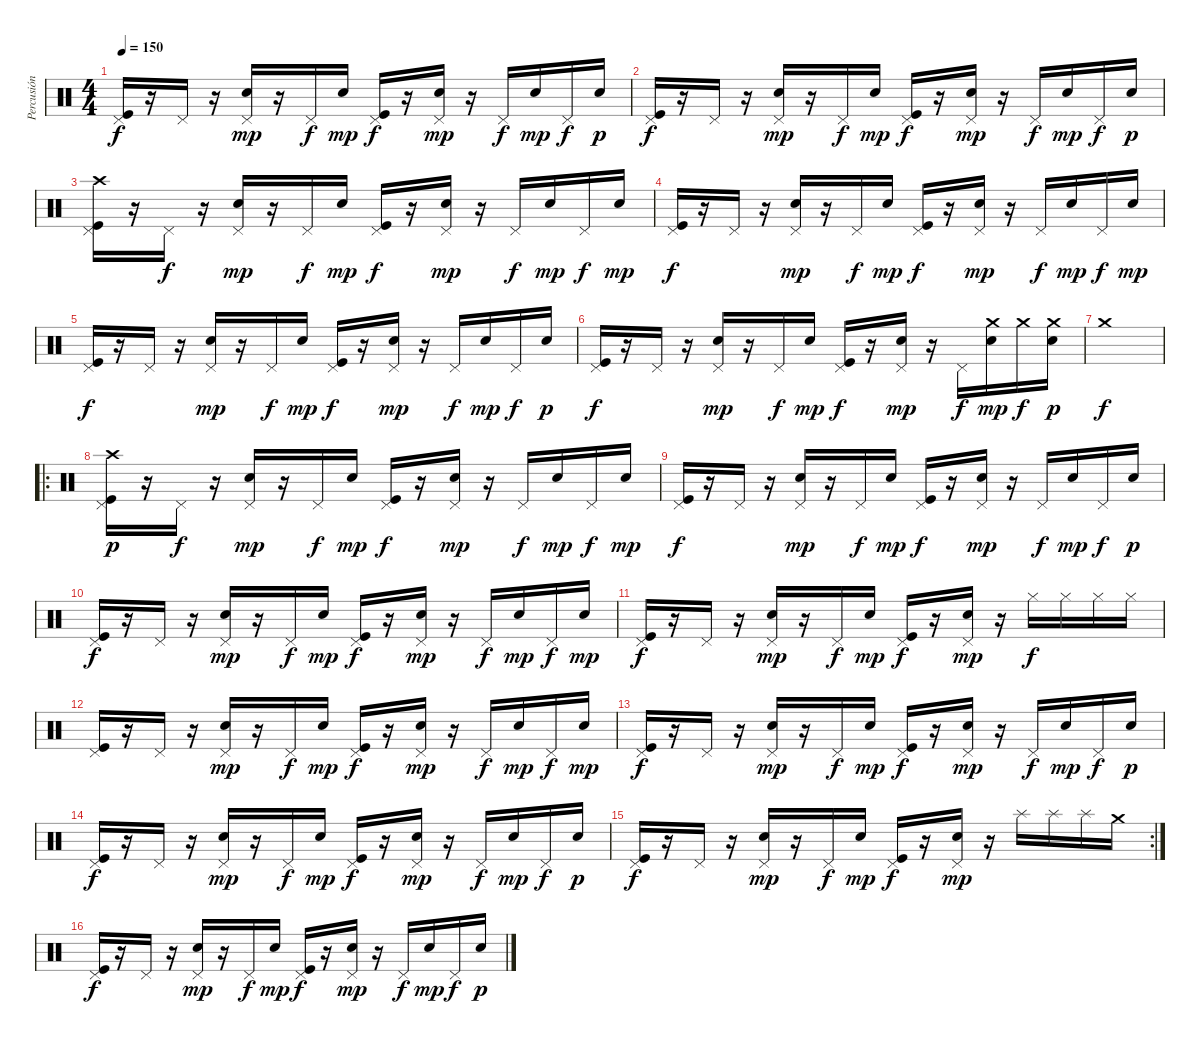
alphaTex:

\track ("Percusión" "Percusión") {instrument percussion}
\staff {score}
\articulation defaults
\ts (4 4)
\tempo 150
\clef neutral
\ks c
("Pedal Hi-Hat (hit)" "Kick (hit)").16{dy f} r.16 "Pedal Hi-Hat (hit)".16 r.16 ("Pedal Hi-Hat (hit)" "Electric Snare (hit)").16{dy mp} r.16 "Pedal Hi-Hat (hit)".16{dy f} "Electric Snare (hit)".16{dy mp} ("Pedal Hi-Hat (hit)" "Kick (hit)").16{dy f} r.16 ("Pedal Hi-Hat (hit)" "Electric Snare (hit)").16{dy mp} r.16 "Pedal Hi-Hat (hit)".16{dy f} "Electric Snare (hit)".16{dy mp} "Pedal Hi-Hat (hit)".16{dy f} "Electric Snare (hit)".16{dy p} |
("Pedal Hi-Hat (hit)" "Kick (hit)").16{dy f} r.16 "Pedal Hi-Hat (hit)".16 r.16 ("Pedal Hi-Hat (hit)" "Electric Snare (hit)").16{dy mp} r.16 "Pedal Hi-Hat (hit)".16{dy f} "Electric Snare (hit)".16{dy mp} ("Pedal Hi-Hat (hit)" "Kick (hit)").16{dy f} r.16 ("Pedal Hi-Hat (hit)" "Electric Snare (hit)").16{dy mp} r.16 "Pedal Hi-Hat (hit)".16{dy f} "Electric Snare (hit)".16{dy mp} "Pedal Hi-Hat (hit)".16{dy f} "Electric Snare (hit)".16{dy p} |
("Pedal Hi-Hat (hit)" "Crash high (hit)" "Kick (hit)").16 r.16 "Pedal Hi-Hat (hit)".16{dy f} r.16 ("Pedal Hi-Hat (hit)" "Electric Snare (hit)").16{dy mp} r.16 "Pedal Hi-Hat (hit)".16{dy f} "Electric Snare (hit)".16{dy mp} ("Pedal Hi-Hat (hit)" "Kick (hit)").16{dy f} r.16 ("Pedal Hi-Hat (hit)" "Electric Snare (hit)").16{dy mp} r.16 "Pedal Hi-Hat (hit)".16{dy f} "Electric Snare (hit)".16{dy mp} "Pedal Hi-Hat (hit)".16{dy f} "Electric Snare (hit)".16{dy mp} |
("Pedal Hi-Hat (hit)" "Kick (hit)").16{dy f} r.16 "Pedal Hi-Hat (hit)".16 r.16 ("Pedal Hi-Hat (hit)" "Electric Snare (hit)").16{dy mp} r.16 "Pedal Hi-Hat (hit)".16{dy f} "Electric Snare (hit)".16{dy mp} ("Pedal Hi-Hat (hit)" "Kick (hit)").16{dy f} r.16 ("Pedal Hi-Hat (hit)" "Electric Snare (hit)").16{dy mp} r.16 "Pedal Hi-Hat (hit)".16{dy f} "Electric Snare (hit)".16{dy mp} "Pedal Hi-Hat (hit)".16{dy f} "Electric Snare (hit)".16{dy mp} |
("Pedal Hi-Hat (hit)" "Kick (hit)").16{dy f} r.16 "Pedal Hi-Hat (hit)".16 r.16 ("Pedal Hi-Hat (hit)" "Electric Snare (hit)").16{dy mp} r.16 "Pedal Hi-Hat (hit)".16{dy f} "Electric Snare (hit)".16{dy mp} ("Pedal Hi-Hat (hit)" "Kick (hit)").16{dy f} r.16 ("Pedal Hi-Hat (hit)" "Electric Snare (hit)").16{dy mp} r.16 "Pedal Hi-Hat (hit)".16{dy f} "Electric Snare (hit)".16{dy mp} "Pedal Hi-Hat (hit)".16{dy f} "Electric Snare (hit)".16{dy p} |
("Pedal Hi-Hat (hit)" "Kick (hit)").16{dy f} r.16 "Pedal Hi-Hat (hit)".16 r.16 ("Pedal Hi-Hat (hit)" "Electric Snare (hit)").16{dy mp} r.16 "Pedal Hi-Hat (hit)".16{dy f} "Electric Snare (hit)".16{dy mp} ("Pedal Hi-Hat (hit)" "Kick (hit)").16{dy f} r.16 ("Pedal Hi-Hat (hit)" "Electric Snare (hit)").16{dy mp} r.16 "Pedal Hi-Hat (hit)".16{dy f} ("Crash medium (hit)" "Electric Snare (hit)").16{dy mp} "Crash medium (hit)".16{dy f} ("Crash medium (hit)" "Electric Snare (hit)").16{dy p} |
"Crash medium (hit)".1{dy f} |
\ro
("Pedal Hi-Hat (hit)" "Crash high (hit)" "Kick (hit)").16{dy p} r.16 "Pedal Hi-Hat (hit)".16{dy f} r.16 ("Pedal Hi-Hat (hit)" "Electric Snare (hit)").16{dy mp} r.16 "Pedal Hi-Hat (hit)".16{dy f} "Electric Snare (hit)".16{dy mp} ("Pedal Hi-Hat (hit)" "Kick (hit)").16{dy f} r.16 ("Pedal Hi-Hat (hit)" "Electric Snare (hit)").16{dy mp} r.16 "Pedal Hi-Hat (hit)".16{dy f} "Electric Snare (hit)".16{dy mp} "Pedal Hi-Hat (hit)".16{dy f} "Electric Snare (hit)".16{dy mp} |
("Pedal Hi-Hat (hit)" "Kick (hit)").16{dy f} r.16 "Pedal Hi-Hat (hit)".16 r.16 ("Pedal Hi-Hat (hit)" "Electric Snare (hit)").16{dy mp} r.16 "Pedal Hi-Hat (hit)".16{dy f} "Electric Snare (hit)".16{dy mp} ("Pedal Hi-Hat (hit)" "Kick (hit)").16{dy f} r.16 ("Pedal Hi-Hat (hit)" "Electric Snare (hit)").16{dy mp} r.16 "Pedal Hi-Hat (hit)".16{dy f} "Electric Snare (hit)".16{dy mp} "Pedal Hi-Hat (hit)".16{dy f} "Electric Snare (hit)".16{dy p} |
("Pedal Hi-Hat (hit)" "Kick (hit)").16{dy f} r.16 "Pedal Hi-Hat (hit)".16 r.16 ("Pedal Hi-Hat (hit)" "Electric Snare (hit)").16{dy mp} r.16 "Pedal Hi-Hat (hit)".16{dy f} "Electric Snare (hit)".16{dy mp} ("Pedal Hi-Hat (hit)" "Kick (hit)").16{dy f} r.16 ("Pedal Hi-Hat (hit)" "Electric Snare (hit)").16{dy mp} r.16 "Pedal Hi-Hat (hit)".16{dy f} "Electric Snare (hit)".16{dy mp} "Pedal Hi-Hat (hit)".16{dy f} "Electric Snare (hit)".16{dy mp} |
("Pedal Hi-Hat (hit)" "Kick (hit)").16{dy f} r.16 "Pedal Hi-Hat (hit)".16 r.16 ("Pedal Hi-Hat (hit)" "Electric Snare (hit)").16{dy mp} r.16 "Pedal Hi-Hat (hit)".16{dy f} "Electric Snare (hit)".16{dy mp} ("Pedal Hi-Hat (hit)" "Kick (hit)").16{dy f} r.16 ("Pedal Hi-Hat (hit)" "Electric Snare (hit)").16{dy mp} r.16 "Hi-Hat (closed)".16{dy f} "Hi-Hat (closed)".16 "Hi-Hat (closed)".16 "Hi-Hat (closed)".16 |
("Pedal Hi-Hat (hit)" "Kick (hit)").16 r.16 "Pedal Hi-Hat (hit)".16 r.16 ("Pedal Hi-Hat (hit)" "Electric Snare (hit)").16{dy mp} r.16 "Pedal Hi-Hat (hit)".16{dy f} "Electric Snare (hit)".16{dy mp} ("Pedal Hi-Hat (hit)" "Kick (hit)").16{dy f} r.16 ("Pedal Hi-Hat (hit)" "Electric Snare (hit)").16{dy mp} r.16 "Pedal Hi-Hat (hit)".16{dy f} "Electric Snare (hit)".16{dy mp} "Pedal Hi-Hat (hit)".16{dy f} "Electric Snare (hit)".16{dy mp} |
("Pedal Hi-Hat (hit)" "Kick (hit)").16{dy f} r.16 "Pedal Hi-Hat (hit)".16 r.16 ("Pedal Hi-Hat (hit)" "Electric Snare (hit)").16{dy mp} r.16 "Pedal Hi-Hat (hit)".16{dy f} "Electric Snare (hit)".16{dy mp} ("Pedal Hi-Hat (hit)" "Kick (hit)").16{dy f} r.16 ("Pedal Hi-Hat (hit)" "Electric Snare (hit)").16{dy mp} r.16 "Pedal Hi-Hat (hit)".16{dy f} "Electric Snare (hit)".16{dy mp} "Pedal Hi-Hat (hit)".16{dy f} "Electric Snare (hit)".16{dy p} |
("Pedal Hi-Hat (hit)" "Kick (hit)").16{dy f} r.16 "Pedal Hi-Hat (hit)".16 r.16 ("Pedal Hi-Hat (hit)" "Electric Snare (hit)").16{dy mp} r.16 "Pedal Hi-Hat (hit)".16{dy f} "Electric Snare (hit)".16{dy mp} ("Pedal Hi-Hat (hit)" "Kick (hit)").16{dy f} r.16 ("Pedal Hi-Hat (hit)" "Electric Snare (hit)").16{dy mp} r.16 "Pedal Hi-Hat (hit)".16{dy f} "Electric Snare (hit)".16{dy mp} "Pedal Hi-Hat (hit)".16{dy f} "Electric Snare (hit)".16{dy p} |
\rc 2
("Pedal Hi-Hat (hit)" "Kick (hit)").16{dy f} r.16 "Pedal Hi-Hat (hit)".16 r.16 ("Pedal Hi-Hat (hit)" "Electric Snare (hit)").16{dy mp} r.16 "Pedal Hi-Hat (hit)".16{dy f} "Electric Snare (hit)".16{dy mp} ("Pedal Hi-Hat (hit)" "Kick (hit)").16{dy f} r.16 ("Pedal Hi-Hat (hit)" "Electric Snare (hit)").16{dy mp} r.16 "Splash (hit)".16 "Splash (hit)".16 "Splash (hit)".16 "Crash medium (hit)".16 |
("Pedal Hi-Hat (hit)" "Kick (hit)").16{dy f} r.16 "Pedal Hi-Hat (hit)".16 r.16 ("Pedal Hi-Hat (hit)" "Electric Snare (hit)").16{dy mp} r.16 "Pedal Hi-Hat (hit)".16{dy f} "Electric Snare (hit)".16{dy mp} ("Pedal Hi-Hat (hit)" "Kick (hit)").16{dy f} r.16 ("Pedal Hi-Hat (hit)" "Electric Snare (hit)").16{dy mp} r.16 "Pedal Hi-Hat (hit)".16{dy f} "Electric Snare (hit)".16{dy mp} "Pedal Hi-Hat (hit)".16{dy f} "Electric Snare (hit)".16{dy p}
